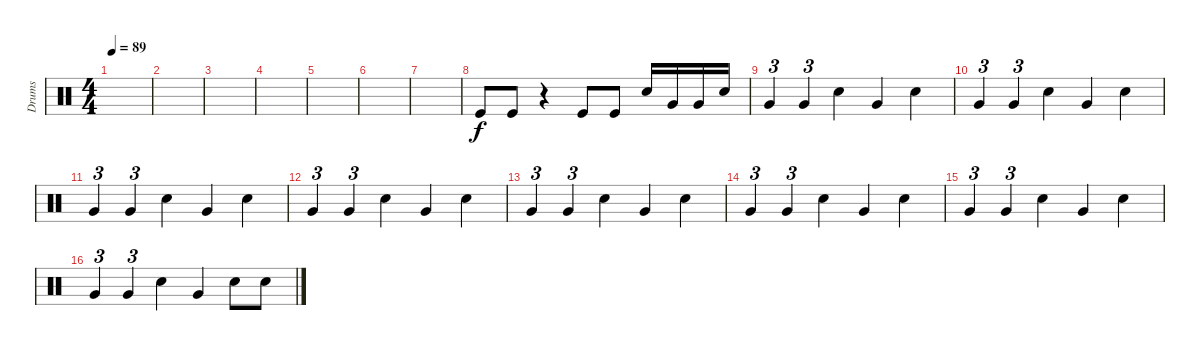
\track ("Drums" "Drums") {instrument percussion}
\staff {score}
\articulation defaults
\ts (4 4)
\tempo 89
\clef neutral
\ks c
|
|
|
|
|
|
|
"Kick (hit)".8 "Kick (hit)".8 r.4 "Kick (hit)".8 "Kick (hit)".8 "Electric Snare (hit)".16 "Very Low Tom (hit)".16 "Very Low Tom (hit)".16 "Electric Snare (hit)".16 |
"Very Low Tom (hit)".4{tu (3 2)} "Very Low Tom (hit)".4{tu (3 2)} "Electric Snare (hit)".4 "Very Low Tom (hit)".4 "Electric Snare (hit)".4 |
"Very Low Tom (hit)".4{tu (3 2)} "Very Low Tom (hit)".4{tu (3 2)} "Electric Snare (hit)".4 "Very Low Tom (hit)".4 "Electric Snare (hit)".4 |
"Very Low Tom (hit)".4{tu (3 2)} "Very Low Tom (hit)".4{tu (3 2)} "Electric Snare (hit)".4 "Very Low Tom (hit)".4 "Electric Snare (hit)".4 |
"Very Low Tom (hit)".4{tu (3 2)} "Very Low Tom (hit)".4{tu (3 2)} "Electric Snare (hit)".4 "Very Low Tom (hit)".4 "Electric Snare (hit)".4 |
"Very Low Tom (hit)".4{tu (3 2)} "Very Low Tom (hit)".4{tu (3 2)} "Electric Snare (hit)".4 "Very Low Tom (hit)".4 "Electric Snare (hit)".4 |
"Very Low Tom (hit)".4{tu (3 2)} "Very Low Tom (hit)".4{tu (3 2)} "Electric Snare (hit)".4 "Very Low Tom (hit)".4 "Electric Snare (hit)".4 |
"Very Low Tom (hit)".4{tu (3 2)} "Very Low Tom (hit)".4{tu (3 2)} "Electric Snare (hit)".4 "Very Low Tom (hit)".4 "Electric Snare (hit)".4 |
"Very Low Tom (hit)".4{tu (3 2)} "Very Low Tom (hit)".4{tu (3 2)} "Electric Snare (hit)".4 "Very Low Tom (hit)".4 "Electric Snare (hit)".8 "Electric Snare (hit)".8
